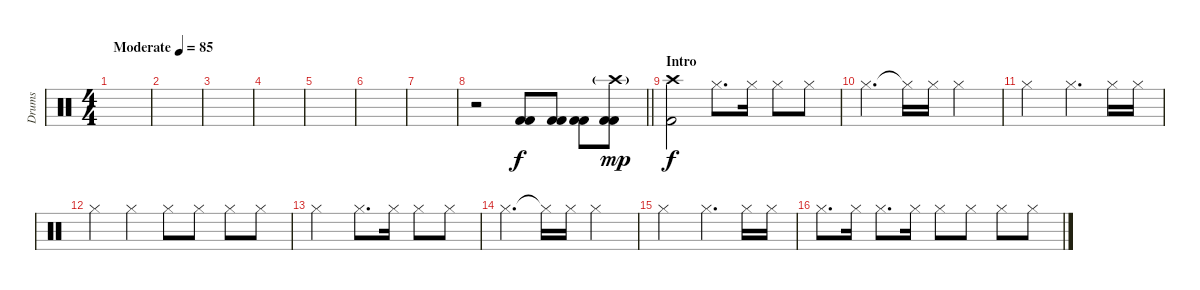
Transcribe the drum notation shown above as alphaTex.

\track ("Drums" "Drums") {instrument percussion}
\staff {score}
\articulation defaults
\ts (4 4)
\tempo (85 "Moderate")
\clef neutral
\ks c
|
|
|
|
|
|
|
\barLineRight lightlight
r.2 ("Kick (hit) 2" "Kick (hit) 2").8 ("Kick (hit) 2" "Kick (hit) 2").8 ("Kick (hit) 2" "Kick (hit) 2").8 ("Crash high (hit)"{g} "Kick (hit) 2" "Kick (hit) 2").8{dy mp} |
\section ("" "Intro")
("Crash high (hit)" "Kick (hit) 2").2{dy f} "Hi-Hat (closed)".8{d} "Hi-Hat (closed)".16 "Hi-Hat (closed)".8 "Hi-Hat (closed)".8 |
"Hi-Hat (closed)".4{d} "Hi-Hat (closed)"{t}.16 "Hi-Hat (closed)".16 "Hi-Hat (closed)".2 |
"Hi-Hat (closed)".2 "Hi-Hat (closed)".4{d} "Hi-Hat (closed)".16 "Hi-Hat (closed)".16 |
"Hi-Hat (closed)".4 "Hi-Hat (closed)".4 "Hi-Hat (closed)".8 "Hi-Hat (closed)".8 "Hi-Hat (closed)".8 "Hi-Hat (closed)".8 |
"Hi-Hat (closed)".2 "Hi-Hat (closed)".8{d} "Hi-Hat (closed)".16 "Hi-Hat (closed)".8 "Hi-Hat (closed)".8 |
"Hi-Hat (closed)".4{d} "Hi-Hat (closed)"{t}.16 "Hi-Hat (closed)".16 "Hi-Hat (closed)".2 |
"Hi-Hat (closed)".2 "Hi-Hat (closed)".4{d} "Hi-Hat (closed)".16 "Hi-Hat (closed)".16 |
"Hi-Hat (closed)".8{d} "Hi-Hat (closed)".16 "Hi-Hat (closed)".8{d} "Hi-Hat (closed)".16 "Hi-Hat (closed)".8 "Hi-Hat (closed)".8 "Hi-Hat (closed)".8 "Hi-Hat (closed)".8
